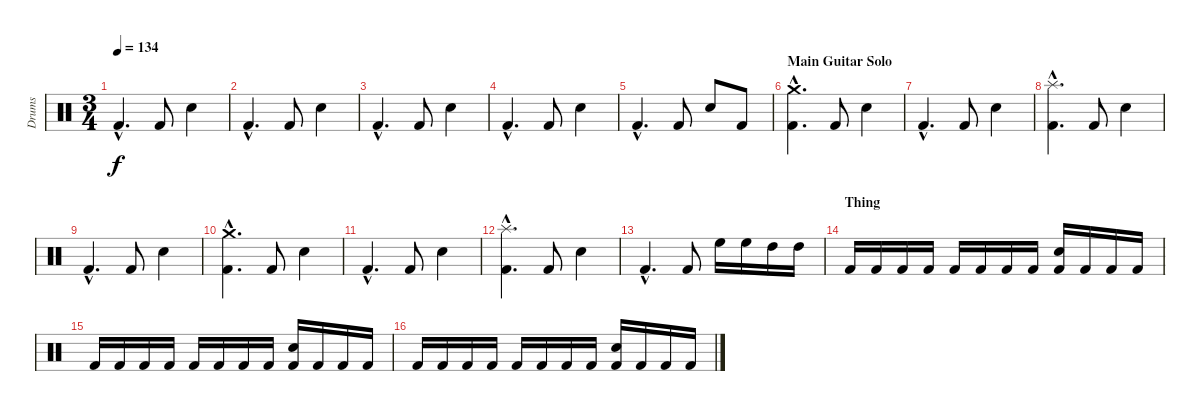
\track ("Drums" "Drums") {instrument percussion}
\staff {score}
\articulation defaults
\ts (3 4)
\tempo 134
\clef neutral
\ks c "Kick (hit) 2"{hac}.4{d dy f} "Kick (hit) 2".8 "Snare (hit) 2".4
|
"Kick (hit) 2"{hac}.4{d} "Kick (hit) 2".8 "Snare (hit) 2".4 |
"Kick (hit) 2"{hac}.4{d} "Kick (hit) 2".8 "Snare (hit) 2".4 |
"Kick (hit) 2"{hac}.4{d} "Kick (hit) 2".8 "Snare (hit) 2".4 |
"Kick (hit) 2"{hac}.4{d} "Kick (hit) 2".8 "Snare (hit) 2".8 "Kick (hit) 2".8 |
\section ("" "Main Guitar Solo")
("Kick (hit) 2"{hac} "Crash medium (hit)"{hac}).4{d} "Kick (hit) 2".8 "Snare (hit) 2".4 |
"Kick (hit) 2"{hac}.4{d} "Kick (hit) 2".8 "Snare (hit) 2".4 |
("Kick (hit) 2"{hac} "Splash (hit)"{hac}).4{d} "Kick (hit) 2".8 "Snare (hit) 2".4 |
"Kick (hit) 2"{hac}.4{d} "Kick (hit) 2".8 "Snare (hit) 2".4 |
("Kick (hit) 2"{hac} "Crash medium (hit)"{hac}).4{d} "Kick (hit) 2".8 "Snare (hit) 2".4 |
"Kick (hit) 2"{hac}.4{d} "Kick (hit) 2".8 "Snare (hit) 2".4 |
("Kick (hit) 2"{hac} "Splash (hit)"{hac}).4{d} "Kick (hit) 2".8 "Snare (hit) 2".4 |
"Kick (hit) 2"{hac}.4{d} "Kick (hit) 2".8 "High Floor Tom (hit)".16 "High Floor Tom (hit)".16 "High Tom (hit)".16 "High Tom (hit)".16 |
\section ("" "Thing")
"Kick (hit) 2".16 "Kick (hit) 2".16 "Kick (hit) 2".16 "Kick (hit) 2".16 "Kick (hit) 2".16 "Kick (hit) 2".16 "Kick (hit) 2".16 "Kick (hit) 2".16 ("Kick (hit) 2" "Snare (hit) 2").16 "Kick (hit) 2".16 "Kick (hit) 2".16 "Kick (hit) 2".16 |
"Kick (hit) 2".16 "Kick (hit) 2".16 "Kick (hit) 2".16 "Kick (hit) 2".16 "Kick (hit) 2".16 "Kick (hit) 2".16 "Kick (hit) 2".16 "Kick (hit) 2".16 ("Kick (hit) 2" "Snare (hit) 2").16 "Kick (hit) 2".16 "Kick (hit) 2".16 "Kick (hit) 2".16 |
"Kick (hit) 2".16 "Kick (hit) 2".16 "Kick (hit) 2".16 "Kick (hit) 2".16 "Kick (hit) 2".16 "Kick (hit) 2".16 "Kick (hit) 2".16 "Kick (hit) 2".16 ("Kick (hit) 2" "Snare (hit) 2").16 "Kick (hit) 2".16 "Kick (hit) 2".16 "Kick (hit) 2".16
